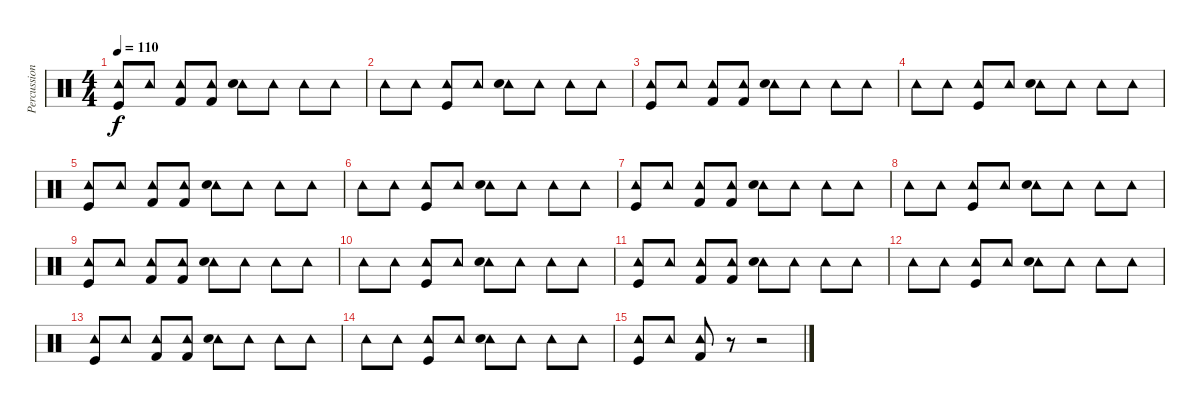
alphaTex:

\track ("Percussion" "Percussion") {instrument percussion}
\staff {score}
\articulation defaults
\ts (4 4)
\tempo 110
\clef neutral
\ks c
("Tambourine (hit)" "Kick (hit)").8{dy f} "Tambourine (hit)".8 ("Tambourine (hit)" "Kick (hit) 2").8 ("Tambourine (hit)" "Kick (hit) 2").8 ("Tambourine (hit)" "Snare (hit) 2").8 "Tambourine (hit)".8 "Tambourine (hit)".8 "Tambourine (hit)".8 |
"Tambourine (hit)".8 "Tambourine (hit)".8 ("Tambourine (hit)" "Kick (hit)").8 "Tambourine (hit)".8 ("Tambourine (hit)" "Snare (hit) 2").8 "Tambourine (hit)".8 "Tambourine (hit)".8 "Tambourine (hit)".8 |
("Tambourine (hit)" "Kick (hit)").8 "Tambourine (hit)".8 ("Tambourine (hit)" "Kick (hit) 2").8 ("Tambourine (hit)" "Kick (hit) 2").8 ("Tambourine (hit)" "Snare (hit) 2").8 "Tambourine (hit)".8 "Tambourine (hit)".8 "Tambourine (hit)".8 |
"Tambourine (hit)".8 "Tambourine (hit)".8 ("Tambourine (hit)" "Kick (hit)").8 "Tambourine (hit)".8 ("Tambourine (hit)" "Snare (hit) 2").8 "Tambourine (hit)".8 "Tambourine (hit)".8 "Tambourine (hit)".8 |
("Tambourine (hit)" "Kick (hit)").8 "Tambourine (hit)".8 ("Tambourine (hit)" "Kick (hit) 2").8 ("Tambourine (hit)" "Kick (hit) 2").8 ("Tambourine (hit)" "Snare (hit) 2").8 "Tambourine (hit)".8 "Tambourine (hit)".8 "Tambourine (hit)".8 |
"Tambourine (hit)".8 "Tambourine (hit)".8 ("Tambourine (hit)" "Kick (hit)").8 "Tambourine (hit)".8 ("Tambourine (hit)" "Snare (hit) 2").8 "Tambourine (hit)".8 "Tambourine (hit)".8 "Tambourine (hit)".8 |
("Tambourine (hit)" "Kick (hit)").8 "Tambourine (hit)".8 ("Tambourine (hit)" "Kick (hit) 2").8 ("Tambourine (hit)" "Kick (hit) 2").8 ("Tambourine (hit)" "Snare (hit) 2").8 "Tambourine (hit)".8 "Tambourine (hit)".8 "Tambourine (hit)".8 |
"Tambourine (hit)".8 "Tambourine (hit)".8 ("Tambourine (hit)" "Kick (hit)").8 "Tambourine (hit)".8 ("Tambourine (hit)" "Snare (hit) 2").8 "Tambourine (hit)".8 "Tambourine (hit)".8 "Tambourine (hit)".8 |
("Tambourine (hit)" "Kick (hit)").8 "Tambourine (hit)".8 ("Tambourine (hit)" "Kick (hit) 2").8 ("Tambourine (hit)" "Kick (hit) 2").8 ("Tambourine (hit)" "Snare (hit) 2").8 "Tambourine (hit)".8 "Tambourine (hit)".8 "Tambourine (hit)".8 |
"Tambourine (hit)".8 "Tambourine (hit)".8 ("Tambourine (hit)" "Kick (hit)").8 "Tambourine (hit)".8 ("Tambourine (hit)" "Snare (hit) 2").8 "Tambourine (hit)".8 "Tambourine (hit)".8 "Tambourine (hit)".8 |
("Tambourine (hit)" "Kick (hit)").8 "Tambourine (hit)".8 ("Tambourine (hit)" "Kick (hit) 2").8 ("Tambourine (hit)" "Kick (hit) 2").8 ("Tambourine (hit)" "Snare (hit) 2").8 "Tambourine (hit)".8 "Tambourine (hit)".8 "Tambourine (hit)".8 |
"Tambourine (hit)".8 "Tambourine (hit)".8 ("Tambourine (hit)" "Kick (hit)").8 "Tambourine (hit)".8 ("Tambourine (hit)" "Snare (hit) 2").8 "Tambourine (hit)".8 "Tambourine (hit)".8 "Tambourine (hit)".8 |
("Tambourine (hit)" "Kick (hit)").8 "Tambourine (hit)".8 ("Tambourine (hit)" "Kick (hit) 2").8 ("Tambourine (hit)" "Kick (hit) 2").8 ("Tambourine (hit)" "Snare (hit) 2").8 "Tambourine (hit)".8 "Tambourine (hit)".8 "Tambourine (hit)".8 |
"Tambourine (hit)".8 "Tambourine (hit)".8 ("Tambourine (hit)" "Kick (hit)").8 "Tambourine (hit)".8 ("Tambourine (hit)" "Snare (hit) 2").8 "Tambourine (hit)".8 "Tambourine (hit)".8 "Tambourine (hit)".8 |
("Tambourine (hit)" "Kick (hit)").8 "Tambourine (hit)".8 ("Tambourine (hit)" "Kick (hit) 2").8 r.8 r.2
